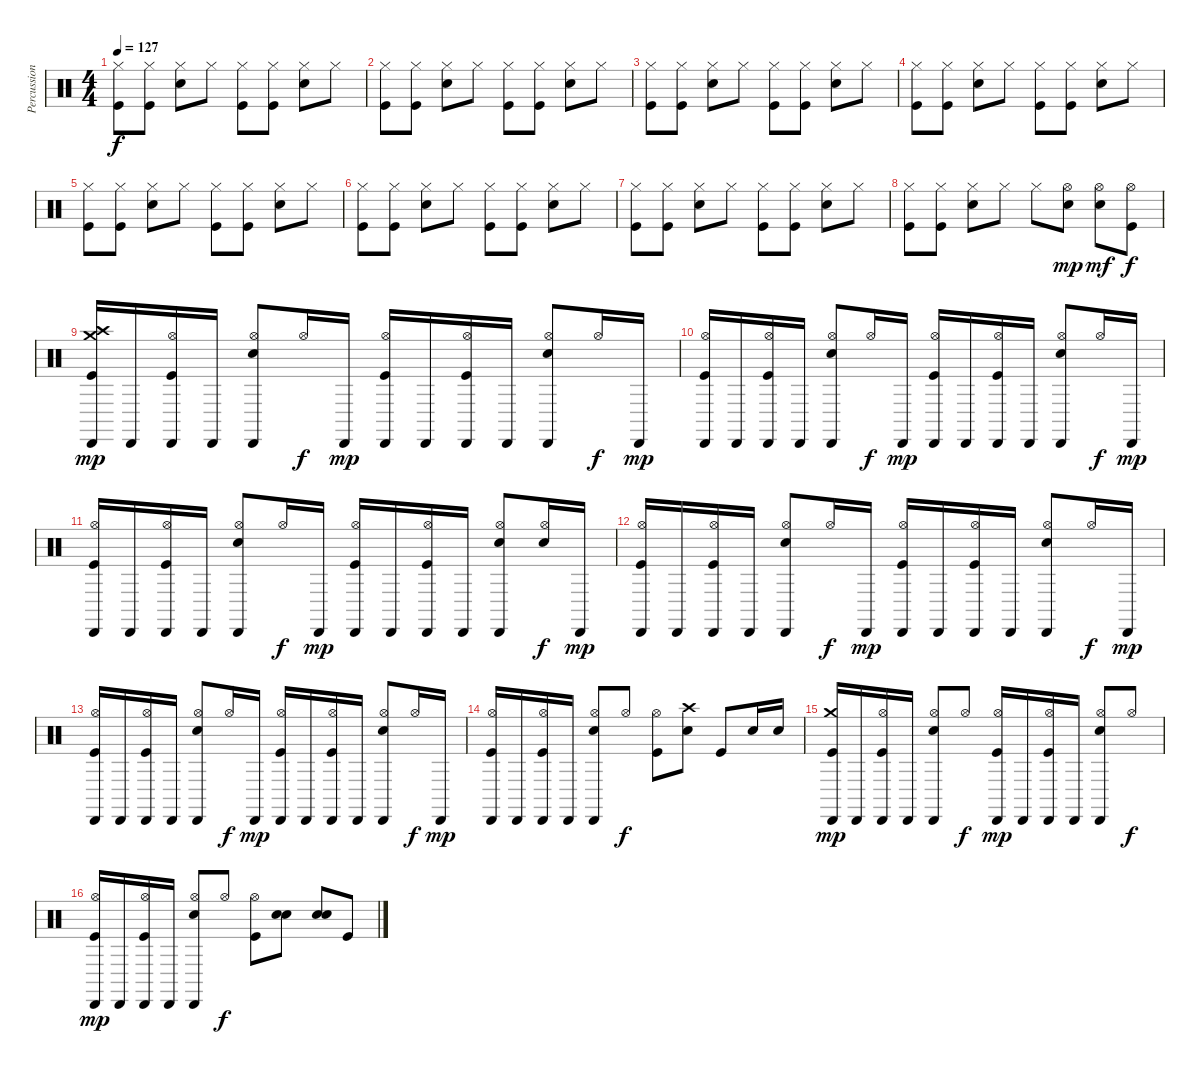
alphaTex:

\track ("Percussion" "Percussion") {instrument percussion}
\staff {score}
\articulation defaults
\ts (4 4)
\tempo 127
\clef neutral
\ks c
("Hi-Hat (closed)" "Kick (hit)").8{dy f} ("Hi-Hat (closed)" "Kick (hit)").8 ("Hi-Hat (closed)" "Snare (hit) 2").8 "Hi-Hat (closed)".8 ("Hi-Hat (closed)" "Kick (hit)").8 ("Hi-Hat (closed)" "Kick (hit)").8 ("Hi-Hat (closed)" "Snare (hit) 2").8 "Hi-Hat (closed)".8 |
("Hi-Hat (closed)" "Kick (hit)").8 ("Hi-Hat (closed)" "Kick (hit)").8 ("Hi-Hat (closed)" "Snare (hit) 2").8 "Hi-Hat (closed)".8 ("Hi-Hat (closed)" "Kick (hit)").8 ("Hi-Hat (closed)" "Kick (hit)").8 ("Hi-Hat (closed)" "Snare (hit) 2").8 "Hi-Hat (closed)".8 |
("Hi-Hat (closed)" "Kick (hit)").8 ("Hi-Hat (closed)" "Kick (hit)").8 ("Hi-Hat (closed)" "Snare (hit) 2").8 "Hi-Hat (closed)".8 ("Hi-Hat (closed)" "Kick (hit)").8 ("Hi-Hat (closed)" "Kick (hit)").8 ("Hi-Hat (closed)" "Snare (hit) 2").8 "Hi-Hat (closed)".8 |
("Hi-Hat (closed)" "Kick (hit)").8 ("Hi-Hat (closed)" "Kick (hit)").8 ("Hi-Hat (closed)" "Snare (hit) 2").8 "Hi-Hat (closed)".8 ("Hi-Hat (closed)" "Kick (hit)").8 ("Hi-Hat (closed)" "Kick (hit)").8 ("Hi-Hat (closed)" "Snare (hit) 2").8 "Hi-Hat (closed)".8 |
("Hi-Hat (closed)" "Kick (hit)").8 ("Hi-Hat (closed)" "Kick (hit)").8 ("Hi-Hat (closed)" "Snare (hit) 2").8 "Hi-Hat (closed)".8 ("Hi-Hat (closed)" "Kick (hit)").8 ("Hi-Hat (closed)" "Kick (hit)").8 ("Hi-Hat (closed)" "Snare (hit) 2").8 "Hi-Hat (closed)".8 |
("Hi-Hat (closed)" "Kick (hit)").8 ("Hi-Hat (closed)" "Kick (hit)").8 ("Hi-Hat (closed)" "Snare (hit) 2").8 "Hi-Hat (closed)".8 ("Hi-Hat (closed)" "Kick (hit)").8 ("Hi-Hat (closed)" "Kick (hit)").8 ("Hi-Hat (closed)" "Snare (hit) 2").8 "Hi-Hat (closed)".8 |
("Hi-Hat (closed)" "Kick (hit)").8 ("Hi-Hat (closed)" "Kick (hit)").8 ("Hi-Hat (closed)" "Snare (hit) 2").8 "Hi-Hat (closed)".8 ("Hi-Hat (closed)" "Kick (hit)").8 ("Hi-Hat (closed)" "Kick (hit)").8 ("Hi-Hat (closed)" "Snare (hit) 2").8 "Hi-Hat (closed)".8 |
("Hi-Hat (closed)" "Kick (hit)").8 ("Hi-Hat (closed)" "Kick (hit)").8 ("Hi-Hat (closed)" "Snare (hit) 2").8 "Hi-Hat (closed)".8 "Hi-Hat (closed)".8 ("Hi-Hat (open)" "Snare (hit) 2").8{dy mp} ("Hi-Hat (open)" "Snare (hit) 2").8{dy mf} ("Hi-Hat (open)" "Kick (hit)").8{dy f} |
("Crash high (hit)" "Crash medium (hit)" "Kick (hit)" "Cabasa (hit)").16{dy mp} "Cabasa (hit)".16 ("Hi-Hat (open)" "Kick (hit)" "Cabasa (hit)").16 "Cabasa (hit)".16 ("Hi-Hat (open)" "Snare (hit) 2" "Cabasa (hit)").8 "Hi-Hat (open)".16{dy f} "Cabasa (hit)".16{dy mp} ("Hi-Hat (open)" "Kick (hit)" "Cabasa (hit)").16 "Cabasa (hit)".16 ("Hi-Hat (open)" "Kick (hit)" "Cabasa (hit)").16 "Cabasa (hit)".16 ("Hi-Hat (open)" "Snare (hit) 2" "Cabasa (hit)").8 "Hi-Hat (open)".16{dy f} "Cabasa (hit)".16{dy mp} |
("Hi-Hat (open)" "Kick (hit)" "Cabasa (hit)").16 "Cabasa (hit)".16 ("Hi-Hat (open)" "Kick (hit)" "Cabasa (hit)").16 "Cabasa (hit)".16 ("Hi-Hat (open)" "Snare (hit) 2" "Cabasa (hit)").8 "Hi-Hat (open)".16{dy f} "Cabasa (hit)".16{dy mp} ("Hi-Hat (open)" "Kick (hit)" "Cabasa (hit)").16 "Cabasa (hit)".16 ("Hi-Hat (open)" "Kick (hit)" "Cabasa (hit)").16 "Cabasa (hit)".16 ("Hi-Hat (open)" "Snare (hit) 2" "Cabasa (hit)").8 "Hi-Hat (open)".16{dy f} "Cabasa (hit)".16{dy mp} |
("Hi-Hat (open)" "Kick (hit)" "Cabasa (hit)").16 "Cabasa (hit)".16 ("Hi-Hat (open)" "Kick (hit)" "Cabasa (hit)").16 "Cabasa (hit)".16 ("Hi-Hat (open)" "Snare (hit) 2" "Cabasa (hit)").8 "Hi-Hat (open)".16{dy f} "Cabasa (hit)".16{dy mp} ("Hi-Hat (open)" "Kick (hit)" "Cabasa (hit)").16 "Cabasa (hit)".16 ("Hi-Hat (open)" "Kick (hit)" "Cabasa (hit)").16 "Cabasa (hit)".16 ("Hi-Hat (open)" "Snare (hit) 2" "Cabasa (hit)").8 ("Hi-Hat (open)" "Snare (hit) 2").16{dy f} "Cabasa (hit)".16{dy mp} |
("Hi-Hat (open)" "Kick (hit)" "Cabasa (hit)").16 "Cabasa (hit)".16 ("Hi-Hat (open)" "Kick (hit)" "Cabasa (hit)").16 "Cabasa (hit)".16 ("Hi-Hat (open)" "Snare (hit) 2" "Cabasa (hit)").8 "Hi-Hat (open)".16{dy f} "Cabasa (hit)".16{dy mp} ("Hi-Hat (open)" "Kick (hit)" "Cabasa (hit)").16 "Cabasa (hit)".16 ("Hi-Hat (open)" "Kick (hit)" "Cabasa (hit)").16 "Cabasa (hit)".16 ("Hi-Hat (open)" "Snare (hit) 2" "Cabasa (hit)").8 "Hi-Hat (open)".16{dy f} "Cabasa (hit)".16{dy mp} |
("Hi-Hat (open)" "Kick (hit)" "Cabasa (hit)").16 "Cabasa (hit)".16 ("Hi-Hat (open)" "Kick (hit)" "Cabasa (hit)").16 "Cabasa (hit)".16 ("Hi-Hat (open)" "Snare (hit) 2" "Cabasa (hit)").8 "Hi-Hat (open)".16{dy f} "Cabasa (hit)".16{dy mp} ("Hi-Hat (open)" "Kick (hit)" "Cabasa (hit)").16 "Cabasa (hit)".16 ("Hi-Hat (open)" "Kick (hit)" "Cabasa (hit)").16 "Cabasa (hit)".16 ("Hi-Hat (open)" "Snare (hit) 2" "Cabasa (hit)").8 "Hi-Hat (open)".16{dy f} "Cabasa (hit)".16{dy mp} |
("Hi-Hat (open)" "Kick (hit)" "Cabasa (hit)").16 "Cabasa (hit)".16 ("Hi-Hat (open)" "Kick (hit)" "Cabasa (hit)").16 "Cabasa (hit)".16 ("Hi-Hat (open)" "Snare (hit) 2" "Cabasa (hit)").8 "Hi-Hat (open)".8{dy f} ("Hi-Hat (open)" "Kick (hit)").8 ("Crash high (hit)" "Snare (hit) 2").8 "Kick (hit)".8 "Snare (hit) 2".16 "Snare (hit) 2".16 |
("Crash medium (hit)" "Kick (hit)" "Cabasa (hit)").16{dy mp} "Cabasa (hit)".16 ("Hi-Hat (open)" "Kick (hit)" "Cabasa (hit)").16 "Cabasa (hit)".16 ("Hi-Hat (open)" "Snare (hit) 2" "Cabasa (hit)").8 "Hi-Hat (open)".8{dy f} ("Hi-Hat (open)" "Kick (hit)" "Cabasa (hit)").16{dy mp} "Cabasa (hit)".16 ("Hi-Hat (open)" "Kick (hit)" "Cabasa (hit)").16 "Cabasa (hit)".16 ("Hi-Hat (open)" "Snare (hit) 2" "Cabasa (hit)").8 "Hi-Hat (open)".8{dy f} |
("Hi-Hat (open)" "Kick (hit)" "Cabasa (hit)").16{dy mp} "Cabasa (hit)".16 ("Hi-Hat (open)" "Kick (hit)" "Cabasa (hit)").16 "Cabasa (hit)".16 ("Hi-Hat (open)" "Snare (hit) 2" "Cabasa (hit)").8 "Hi-Hat (open)".8{dy f} ("Hi-Hat (open)" "Kick (hit)").8 ("Snare (hit) 2" "Snare (hit) 2").8 ("Snare (hit) 2" "Snare (hit) 2").8 "Kick (hit)".8
